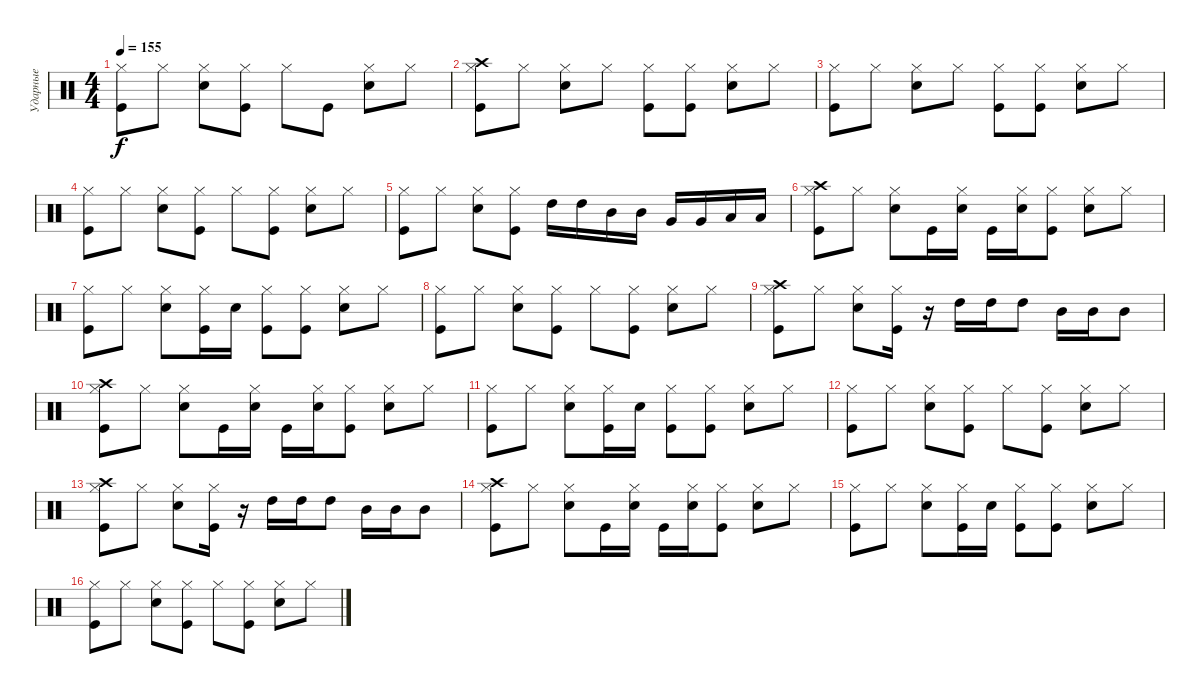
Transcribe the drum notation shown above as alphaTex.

\track ("Ударные" "Ударные") {instrument percussion}
\staff {score}
\articulation defaults
\ts (4 4)
\tempo 155
\clef neutral
\ks c
("Hi-Hat (closed)" "Kick (hit)").8{dy f} "Hi-Hat (closed)".8 ("Hi-Hat (closed)" "Snare (hit) 2").8 ("Hi-Hat (closed)" "Kick (hit)").8 "Hi-Hat (closed)".8 "Kick (hit)".8 ("Hi-Hat (closed)" "Snare (hit) 2").8 "Hi-Hat (closed)".8 |
("Crash high (hit)" "Hi-Hat (closed)" "Kick (hit)").8 "Hi-Hat (closed)".8 ("Hi-Hat (closed)" "Snare (hit) 2").8 "Hi-Hat (closed)".8 ("Hi-Hat (closed)" "Kick (hit)").8 ("Hi-Hat (closed)" "Kick (hit)").8 ("Hi-Hat (closed)" "Snare (hit) 2").8 "Hi-Hat (closed)".8 |
("Hi-Hat (closed)" "Kick (hit)").8 "Hi-Hat (closed)".8 ("Hi-Hat (closed)" "Snare (hit) 2").8 "Hi-Hat (closed)".8 ("Hi-Hat (closed)" "Kick (hit)").8 ("Hi-Hat (closed)" "Kick (hit)").8 ("Hi-Hat (closed)" "Snare (hit) 2").8 "Hi-Hat (closed)".8 |
("Hi-Hat (closed)" "Kick (hit)").8 "Hi-Hat (closed)".8 ("Hi-Hat (closed)" "Snare (hit) 2").8 ("Hi-Hat (closed)" "Kick (hit)").8 "Hi-Hat (closed)".8 ("Hi-Hat (closed)" "Kick (hit)").8 ("Hi-Hat (closed)" "Snare (hit) 2").8 "Hi-Hat (closed)".8 |
("Hi-Hat (closed)" "Kick (hit)").8 "Hi-Hat (closed)".8 ("Hi-Hat (closed)" "Snare (hit) 2").8 ("Hi-Hat (closed)" "Kick (hit)").8 "High Tom (hit)".16 "High Tom (hit)".16 "Mid Tom (hit)".16 "Mid Tom (hit)".16 "Very Low Tom (hit)".16 "Very Low Tom (hit)".16 "Low Floor Tom (hit)".16 "Low Floor Tom (hit)".16 |
("Crash high (hit)" "Hi-Hat (closed)" "Kick (hit)").8 "Hi-Hat (closed)".8 ("Hi-Hat (closed)" "Snare (hit) 2").8 "Kick (hit)".16 ("Hi-Hat (closed)" "Snare (hit) 2").16 "Kick (hit)".16 ("Hi-Hat (closed)" "Snare (hit) 2").16 ("Hi-Hat (closed)" "Kick (hit)").8 ("Hi-Hat (closed)" "Snare (hit) 2").8 "Hi-Hat (closed)".8 |
("Hi-Hat (closed)" "Kick (hit)").8 "Hi-Hat (closed)".8 ("Hi-Hat (closed)" "Snare (hit) 2").8 ("Hi-Hat (closed)" "Kick (hit)").16 "Snare (hit) 2".16 ("Hi-Hat (closed)" "Kick (hit)").8 ("Hi-Hat (closed)" "Kick (hit)").8 ("Hi-Hat (closed)" "Snare (hit) 2").8 "Hi-Hat (closed)".8 |
("Hi-Hat (closed)" "Kick (hit)").8 "Hi-Hat (closed)".8 ("Hi-Hat (closed)" "Snare (hit) 2").8 ("Hi-Hat (closed)" "Kick (hit)").8 "Hi-Hat (closed)".8 ("Hi-Hat (closed)" "Kick (hit)").8 ("Hi-Hat (closed)" "Snare (hit) 2").8 "Hi-Hat (closed)".8 |
("Crash high (hit)" "Hi-Hat (closed)" "Kick (hit)").8 "Hi-Hat (closed)".8 ("Hi-Hat (closed)" "Snare (hit) 2").8 ("Hi-Hat (closed)" "Kick (hit)").16 r.16 "High Tom (hit)".16 "High Tom (hit)".16 "High Tom (hit)".8 "Mid Tom (hit)".16 "Mid Tom (hit)".16 "Mid Tom (hit)".8 |
("Crash high (hit)" "Hi-Hat (closed)" "Kick (hit)").8 "Hi-Hat (closed)".8 ("Hi-Hat (closed)" "Snare (hit) 2").8 "Kick (hit)".16 ("Hi-Hat (closed)" "Snare (hit) 2").16 "Kick (hit)".16 ("Hi-Hat (closed)" "Snare (hit) 2").16 ("Hi-Hat (closed)" "Kick (hit)").8 ("Hi-Hat (closed)" "Snare (hit) 2").8 "Hi-Hat (closed)".8 |
("Hi-Hat (closed)" "Kick (hit)").8 "Hi-Hat (closed)".8 ("Hi-Hat (closed)" "Snare (hit) 2").8 ("Hi-Hat (closed)" "Kick (hit)").16 "Snare (hit) 2".16 ("Hi-Hat (closed)" "Kick (hit)").8 ("Hi-Hat (closed)" "Kick (hit)").8 ("Hi-Hat (closed)" "Snare (hit) 2").8 "Hi-Hat (closed)".8 |
("Hi-Hat (closed)" "Kick (hit)").8 "Hi-Hat (closed)".8 ("Hi-Hat (closed)" "Snare (hit) 2").8 ("Hi-Hat (closed)" "Kick (hit)").8 "Hi-Hat (closed)".8 ("Hi-Hat (closed)" "Kick (hit)").8 ("Hi-Hat (closed)" "Snare (hit) 2").8 "Hi-Hat (closed)".8 |
("Crash high (hit)" "Hi-Hat (closed)" "Kick (hit)").8 "Hi-Hat (closed)".8 ("Hi-Hat (closed)" "Snare (hit) 2").8 ("Hi-Hat (closed)" "Kick (hit)").16 r.16 "High Tom (hit)".16 "High Tom (hit)".16 "High Tom (hit)".8 "Mid Tom (hit)".16 "Mid Tom (hit)".16 "Mid Tom (hit)".8 |
("Crash high (hit)" "Hi-Hat (closed)" "Kick (hit)").8 "Hi-Hat (closed)".8 ("Hi-Hat (closed)" "Snare (hit) 2").8 "Kick (hit)".16 ("Hi-Hat (closed)" "Snare (hit) 2").16 "Kick (hit)".16 ("Hi-Hat (closed)" "Snare (hit) 2").16 ("Hi-Hat (closed)" "Kick (hit)").8 ("Hi-Hat (closed)" "Snare (hit) 2").8 "Hi-Hat (closed)".8 |
("Hi-Hat (closed)" "Kick (hit)").8 "Hi-Hat (closed)".8 ("Hi-Hat (closed)" "Snare (hit) 2").8 ("Hi-Hat (closed)" "Kick (hit)").16 "Snare (hit) 2".16 ("Hi-Hat (closed)" "Kick (hit)").8 ("Hi-Hat (closed)" "Kick (hit)").8 ("Hi-Hat (closed)" "Snare (hit) 2").8 "Hi-Hat (closed)".8 |
("Hi-Hat (closed)" "Kick (hit)").8 "Hi-Hat (closed)".8 ("Hi-Hat (closed)" "Snare (hit) 2").8 ("Hi-Hat (closed)" "Kick (hit)").8 "Hi-Hat (closed)".8 ("Hi-Hat (closed)" "Kick (hit)").8 ("Hi-Hat (closed)" "Snare (hit) 2").8 "Hi-Hat (closed)".8
